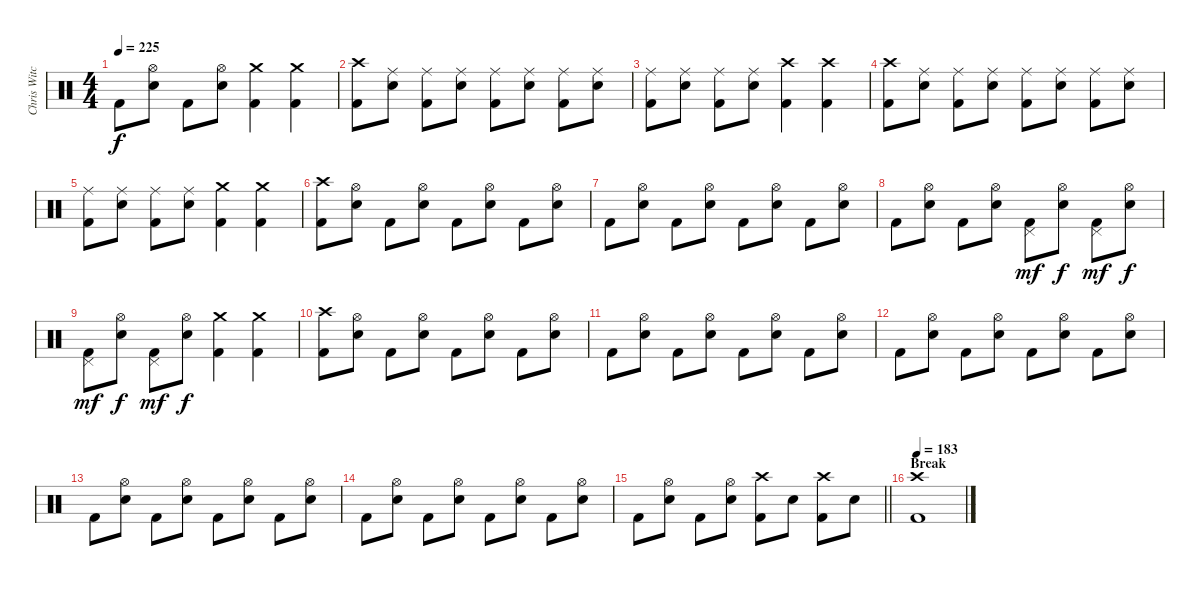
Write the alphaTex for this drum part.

\track ("Chris Witchunter" "Chris Witc") {instrument percussion}
\staff {score}
\articulation defaults
\ts (4 4)
\tempo 225
\clef neutral
\ks c "Kick (hit) 2".8{dy f}
("Hi-Hat (open)" "Snare (hit) 2").8 "Kick (hit) 2".8 ("Hi-Hat (open)" "Snare (hit) 2").8 ("Crash medium (hit)" "Kick (hit) 2").4 ("Crash medium (hit)" "Kick (hit) 2").4 |
("Crash high (hit)" "Kick (hit) 2").8 ("Ride (middle)" "Snare (hit) 2").8 ("Ride (middle)" "Kick (hit) 2").8 ("Ride (middle)" "Snare (hit) 2").8 ("Ride (middle)" "Kick (hit) 2").8 ("Ride (middle)" "Snare (hit) 2").8 ("Ride (middle)" "Kick (hit) 2").8 ("Ride (middle)" "Snare (hit) 2").8 |
("Ride (middle)" "Kick (hit) 2").8 ("Ride (middle)" "Snare (hit) 2").8 ("Ride (middle)" "Kick (hit) 2").8 ("Ride (middle)" "Snare (hit) 2").8 ("Crash high (hit)" "Kick (hit) 2").4 ("Crash high (hit)" "Kick (hit) 2").4 |
("Crash high (hit)" "Kick (hit) 2").8 ("Ride (middle)" "Snare (hit) 2").8 ("Ride (middle)" "Kick (hit) 2").8 ("Ride (middle)" "Snare (hit) 2").8 ("Ride (middle)" "Kick (hit) 2").8 ("Ride (middle)" "Snare (hit) 2").8 ("Ride (middle)" "Kick (hit) 2").8 ("Ride (middle)" "Snare (hit) 2").8 |
("Ride (middle)" "Kick (hit) 2").8 ("Ride (middle)" "Snare (hit) 2").8 ("Ride (middle)" "Kick (hit) 2").8 ("Ride (middle)" "Snare (hit) 2").8 ("Crash medium (hit)" "Kick (hit) 2").4 ("Crash medium (hit)" "Kick (hit) 2").4 |
("Crash high (hit)" "Kick (hit) 2").8 ("Hi-Hat (open)" "Snare (hit) 2").8 "Kick (hit) 2".8 ("Hi-Hat (open)" "Snare (hit) 2").8 "Kick (hit) 2".8 ("Hi-Hat (open)" "Snare (hit) 2").8 "Kick (hit) 2".8 ("Hi-Hat (open)" "Snare (hit) 2").8 |
"Kick (hit) 2".8 ("Hi-Hat (open)" "Snare (hit) 2").8 "Kick (hit) 2".8 ("Hi-Hat (open)" "Snare (hit) 2").8 "Kick (hit) 2".8 ("Hi-Hat (open)" "Snare (hit) 2").8 "Kick (hit) 2".8 ("Hi-Hat (open)" "Snare (hit) 2").8 |
"Kick (hit) 2".8 ("Hi-Hat (open)" "Snare (hit) 2").8 "Kick (hit) 2".8 ("Hi-Hat (open)" "Snare (hit) 2").8 ("Pedal Hi-Hat (hit)" "Kick (hit) 2").8{dy mf} ("Hi-Hat (open)" "Snare (hit) 2").8{dy f} ("Pedal Hi-Hat (hit)" "Kick (hit) 2").8{dy mf} ("Hi-Hat (open)" "Snare (hit) 2").8{dy f} |
("Pedal Hi-Hat (hit)" "Kick (hit) 2").8{dy mf} ("Hi-Hat (open)" "Snare (hit) 2").8{dy f} ("Pedal Hi-Hat (hit)" "Kick (hit) 2").8{dy mf} ("Hi-Hat (open)" "Snare (hit) 2").8{dy f} ("Crash medium (hit)" "Kick (hit) 2").4 ("Crash medium (hit)" "Kick (hit) 2").4 |
("Crash high (hit)" "Kick (hit) 2").8 ("Hi-Hat (open)" "Snare (hit) 2").8 "Kick (hit) 2".8 ("Hi-Hat (open)" "Snare (hit) 2").8 "Kick (hit) 2".8 ("Hi-Hat (open)" "Snare (hit) 2").8 "Kick (hit) 2".8 ("Hi-Hat (open)" "Snare (hit) 2").8 |
"Kick (hit) 2".8 ("Hi-Hat (open)" "Snare (hit) 2").8 "Kick (hit) 2".8 ("Hi-Hat (open)" "Snare (hit) 2").8 "Kick (hit) 2".8 ("Hi-Hat (open)" "Snare (hit) 2").8 "Kick (hit) 2".8 ("Hi-Hat (open)" "Snare (hit) 2").8 |
"Kick (hit) 2".8 ("Hi-Hat (open)" "Snare (hit) 2").8 "Kick (hit) 2".8 ("Hi-Hat (open)" "Snare (hit) 2").8 "Kick (hit) 2".8 ("Hi-Hat (open)" "Snare (hit) 2").8 "Kick (hit) 2".8 ("Hi-Hat (open)" "Snare (hit) 2").8 |
"Kick (hit) 2".8 ("Hi-Hat (open)" "Snare (hit) 2").8 "Kick (hit) 2".8 ("Hi-Hat (open)" "Snare (hit) 2").8 "Kick (hit) 2".8 ("Hi-Hat (open)" "Snare (hit) 2").8 "Kick (hit) 2".8 ("Hi-Hat (open)" "Snare (hit) 2").8 |
"Kick (hit) 2".8 ("Hi-Hat (open)" "Snare (hit) 2").8 "Kick (hit) 2".8 ("Hi-Hat (open)" "Snare (hit) 2").8 "Kick (hit) 2".8 ("Hi-Hat (open)" "Snare (hit) 2").8 "Kick (hit) 2".8 ("Hi-Hat (open)" "Snare (hit) 2").8 |
\barLineRight lightlight "Kick (hit) 2".8
("Hi-Hat (open)" "Snare (hit) 2").8 "Kick (hit) 2".8 ("Hi-Hat (open)" "Snare (hit) 2").8 ("Crash high (hit)" "Kick (hit) 2").8 "Snare (hit) 2".8 ("Crash high (hit)" "Kick (hit) 2").8 "Snare (hit) 2".8 |
\section ("" "Break")
\tempo 183
("Crash high (hit)" "Kick (hit) 2").1
